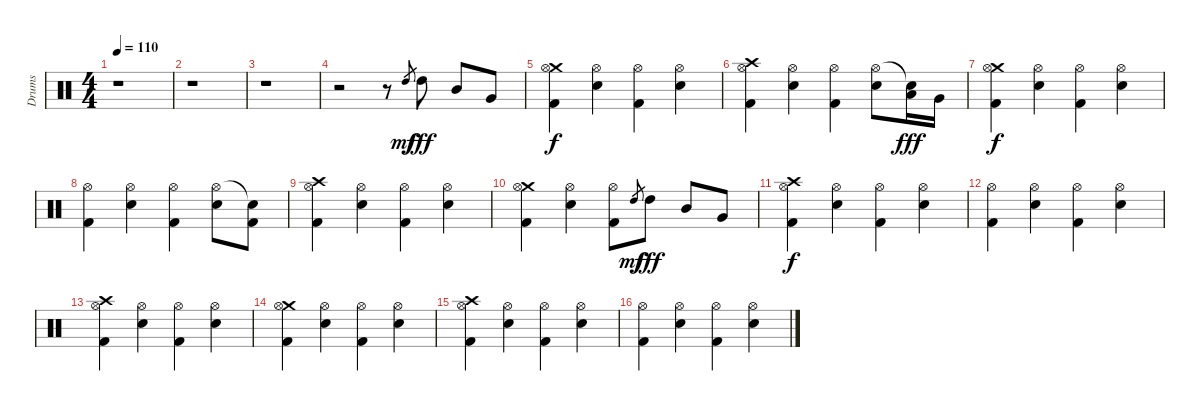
\track ("Drums" "Drums") {instrument percussion}
\staff {score}
\articulation defaults
\ts (4 4)
\tempo 110
\clef neutral
\ks c
r.1{dy mf} |
r.1 |
r.1 |
r.2 r.8 "High Tom (hit)".8{gr} "High Tom (hit)".8{dy fff} "Mid Tom (hit)".8 "Very Low Tom (hit)".8 |
("Crash medium (hit)" "Hi-Hat (open)" "Kick (hit) 2").4{dy f} ("Hi-Hat (open)" "Electric Snare (hit)").4 ("Hi-Hat (open)" "Kick (hit) 2").4 ("Hi-Hat (open)" "Electric Snare (hit)").4 |
("Crash high (hit)" "Hi-Hat (open)" "Kick (hit) 2").4 ("Hi-Hat (open)" "Electric Snare (hit)").4 ("Hi-Hat (open)" "Kick (hit) 2").4 ("Hi-Hat (open)" "Electric Snare (hit)").8 ("Snare (hit)"{t} "Low Tom (hit)").16{dy fff} "Very Low Tom (hit)".16 |
("Crash medium (hit)" "Hi-Hat (open)" "Kick (hit) 2").4{dy f} ("Hi-Hat (open)" "Electric Snare (hit)").4 ("Hi-Hat (open)" "Kick (hit) 2").4 ("Hi-Hat (open)" "Electric Snare (hit)").4 |
("Hi-Hat (open)" "Kick (hit) 2").4 ("Hi-Hat (open)" "Electric Snare (hit)").4 ("Hi-Hat (open)" "Kick (hit) 2").4 ("Hi-Hat (open)" "Electric Snare (hit)").8 ("Snare (hit)"{t} "Kick (hit) 2").8 |
("Crash high (hit)" "Hi-Hat (open)" "Kick (hit) 2").4 ("Hi-Hat (open)" "Electric Snare (hit)").4 ("Hi-Hat (open)" "Kick (hit) 2").4 ("Hi-Hat (open)" "Electric Snare (hit)").4 |
("Crash medium (hit)" "Hi-Hat (open)" "Kick (hit) 2").4 ("Hi-Hat (open)" "Electric Snare (hit)").4 ("Hi-Hat (open)" "Kick (hit) 2").8 "High Tom (hit)".8{gr dy mf} "High Tom (hit)".8{dy fff} "Mid Tom (hit)".8 "Very Low Tom (hit)".8 |
("Crash high (hit)" "Hi-Hat (open)" "Kick (hit) 2").4{dy f} ("Hi-Hat (open)" "Electric Snare (hit)").4 ("Hi-Hat (open)" "Kick (hit) 2").4 ("Hi-Hat (open)" "Electric Snare (hit)").4 |
("Hi-Hat (open)" "Kick (hit) 2").4 ("Hi-Hat (open)" "Electric Snare (hit)").4 ("Hi-Hat (open)" "Kick (hit) 2").4 ("Hi-Hat (open)" "Electric Snare (hit)").4 |
("Crash high (hit)" "Hi-Hat (open)" "Kick (hit) 2").4 ("Hi-Hat (open)" "Electric Snare (hit)").4 ("Hi-Hat (open)" "Kick (hit) 2").4 ("Hi-Hat (open)" "Electric Snare (hit)").4 |
("Crash medium (hit)" "Hi-Hat (open)" "Kick (hit) 2").4 ("Hi-Hat (open)" "Electric Snare (hit)").4 ("Hi-Hat (open)" "Kick (hit) 2").4 ("Hi-Hat (open)" "Electric Snare (hit)").4 |
("Crash high (hit)" "Hi-Hat (open)" "Kick (hit) 2").4 ("Hi-Hat (open)" "Electric Snare (hit)").4 ("Hi-Hat (open)" "Kick (hit) 2").4 ("Hi-Hat (open)" "Electric Snare (hit)").4 |
("Hi-Hat (open)" "Kick (hit) 2").4 ("Hi-Hat (open)" "Electric Snare (hit)").4 ("Hi-Hat (open)" "Kick (hit) 2").4 ("Hi-Hat (open)" "Electric Snare (hit)").4
